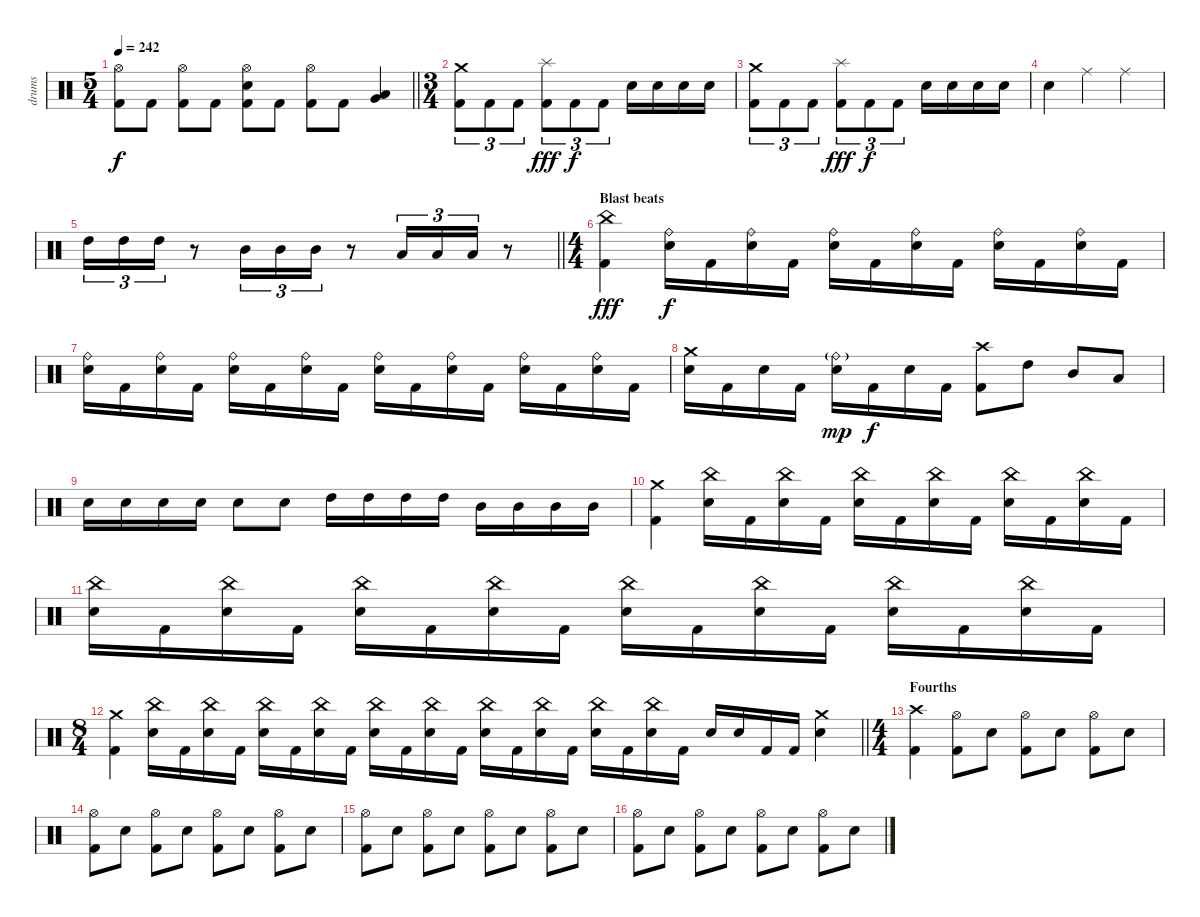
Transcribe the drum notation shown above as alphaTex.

\track ("drums" "drums") {instrument percussion}
\staff {score}
\articulation defaults
\ts (5 4)
\tempo 242
\clef neutral
\barLineRight lightlight
\ks c
("Hi-Hat (open)" "Kick (hit) 2").8{dy f} "Kick (hit) 2".8 ("Hi-Hat (open)" "Kick (hit) 2").8 "Kick (hit) 2".8 ("Hi-Hat (open)" "Electric Snare (hit)" "Kick (hit) 2").8 "Kick (hit) 2".8 ("Hi-Hat (open)" "Kick (hit) 2").8 "Kick (hit) 2".8 ("Low Tom (hit)" "Very Low Tom (hit)").4 |
\ts (3 4)
("Crash medium (hit)" "Kick (hit) 2").8{tu (3 2)} "Kick (hit) 2".8{tu (3 2)} "Kick (hit) 2".8{tu (3 2)} ("Splash (hit)" "Kick (hit) 2").8{tu (3 2) dy fff} "Kick (hit) 2".8{tu (3 2) dy f} "Kick (hit) 2".8{tu (3 2)} "Electric Snare (hit)".16 "Electric Snare (hit)".16 "Electric Snare (hit)".16 "Electric Snare (hit)".16 |
("Crash medium (hit)" "Kick (hit) 2").8{tu (3 2)} "Kick (hit) 2".8{tu (3 2)} "Kick (hit) 2".8{tu (3 2)} ("Splash (hit)" "Kick (hit) 2").8{tu (3 2) dy fff} "Kick (hit) 2".8{tu (3 2) dy f} "Kick (hit) 2".8{tu (3 2)} "Electric Snare (hit)".16 "Electric Snare (hit)".16 "Electric Snare (hit)".16 "Electric Snare (hit)".16 |
"Electric Snare (hit)".4 "Ride (middle)".4 "Ride (middle)".4 |
\barLineRight lightlight "High Tom (hit)".16{tu (3 2)} "High Tom (hit)".16{tu (3 2)} "High Tom (hit)".16{tu (3 2)}
r.8 "Mid Tom (hit)".16{tu (3 2)} "Mid Tom (hit)".16{tu (3 2)} "Mid Tom (hit)".16{tu (3 2)} r.8 "Low Tom (hit)".16{tu (3 2)} "Low Tom (hit)".16{tu (3 2)} "Low Tom (hit)".16{tu (3 2)} r.8 |
\ts (4 4)
\section ("" "Blast beats")
("China (hit)" "Kick (hit) 2").4{dy fff} ("Ride (bell)" "Electric Snare (hit)").16{dy f} "Kick (hit) 2".16 ("Ride (bell)" "Electric Snare (hit)").16 "Kick (hit) 2".16 ("Ride (bell)" "Electric Snare (hit)").16 "Kick (hit) 2".16 ("Ride (bell)" "Electric Snare (hit)").16 "Kick (hit) 2".16 ("Ride (bell)" "Electric Snare (hit)").16 "Kick (hit) 2".16 ("Ride (bell)" "Electric Snare (hit)").16 "Kick (hit) 2".16 |
("Ride (bell)" "Electric Snare (hit)").16 "Kick (hit) 2".16 ("Ride (bell)" "Electric Snare (hit)").16 "Kick (hit) 2".16 ("Ride (bell)" "Electric Snare (hit)").16 "Kick (hit) 2".16 ("Ride (bell)" "Electric Snare (hit)").16 "Kick (hit) 2".16 ("Ride (bell)" "Electric Snare (hit)").16 "Kick (hit) 2".16 ("Ride (bell)" "Electric Snare (hit)").16 "Kick (hit) 2".16 ("Ride (bell)" "Electric Snare (hit)").16 "Kick (hit) 2".16 ("Ride (bell)" "Electric Snare (hit)").16 "Kick (hit) 2".16 |
("Crash medium (hit)" "Electric Snare (hit)").16 "Kick (hit) 2".16 "Electric Snare (hit)".16 "Kick (hit) 2".16 ("Ride (bell)"{g} "Electric Snare (hit)").16{dy mp} "Kick (hit) 2".16{dy f} "Electric Snare (hit)".16 "Kick (hit) 2".16 ("Crash high (hit)" "Kick (hit) 2").8 "High Tom (hit)".8 "Mid Tom (hit)".8 "Low Tom (hit)".8 |
"Electric Snare (hit)".16 "Electric Snare (hit)".16 "Electric Snare (hit)".16 "Electric Snare (hit)".16 "Electric Snare (hit)".8 "Electric Snare (hit)".8 "High Tom (hit)".16 "High Tom (hit)".16 "High Tom (hit)".16 "High Tom (hit)".16 "Mid Tom (hit)".16 "Mid Tom (hit)".16 "Mid Tom (hit)".16 "Mid Tom (hit)".16 |
("Crash medium (hit)" "Kick (hit) 2").4 ("China (hit)" "Electric Snare (hit)").16 "Kick (hit) 2".16 ("China (hit)" "Electric Snare (hit)").16 "Kick (hit) 2".16 ("China (hit)" "Electric Snare (hit)").16 "Kick (hit) 2".16 ("China (hit)" "Electric Snare (hit)").16 "Kick (hit) 2".16 ("China (hit)" "Electric Snare (hit)").16 "Kick (hit) 2".16 ("China (hit)" "Electric Snare (hit)").16 "Kick (hit) 2".16 |
("China (hit)" "Electric Snare (hit)").16 "Kick (hit) 2".16 ("China (hit)" "Electric Snare (hit)").16 "Kick (hit) 2".16 ("China (hit)" "Electric Snare (hit)").16 "Kick (hit) 2".16 ("China (hit)" "Electric Snare (hit)").16 "Kick (hit) 2".16 ("China (hit)" "Electric Snare (hit)").16 "Kick (hit) 2".16 ("China (hit)" "Electric Snare (hit)").16 "Kick (hit) 2".16 ("China (hit)" "Electric Snare (hit)").16 "Kick (hit) 2".16 ("China (hit)" "Electric Snare (hit)").16 "Kick (hit) 2".16 |
\ts (8 4)
\barLineRight lightlight
("Crash medium (hit)" "Kick (hit) 2").4 ("China (hit)" "Electric Snare (hit)").16 "Kick (hit) 2".16 ("China (hit)" "Electric Snare (hit)").16 "Kick (hit) 2".16 ("China (hit)" "Electric Snare (hit)").16 "Kick (hit) 2".16 ("China (hit)" "Electric Snare (hit)").16 "Kick (hit) 2".16 ("China (hit)" "Electric Snare (hit)").16 "Kick (hit) 2".16 ("China (hit)" "Electric Snare (hit)").16 "Kick (hit) 2".16 ("China (hit)" "Electric Snare (hit)").16 "Kick (hit) 2".16 ("China (hit)" "Electric Snare (hit)").16 "Kick (hit) 2".16 ("China (hit)" "Electric Snare (hit)").16 "Kick (hit) 2".16 ("China (hit)" "Electric Snare (hit)").16 "Kick (hit) 2".16 "Electric Snare (hit)".16 "Electric Snare (hit)".16 "Kick (hit) 2".16 "Kick (hit) 2".16 ("Crash medium (hit)" "Electric Snare (hit)").4 |
\ts (4 4)
\section ("" "Fourths")
("Crash high (hit)" "Kick (hit) 2").4 ("Hi-Hat (open)" "Kick (hit) 2").8 "Electric Snare (hit)".8 ("Hi-Hat (open)" "Kick (hit) 2").8 "Electric Snare (hit)".8 ("Hi-Hat (open)" "Kick (hit) 2").8 "Electric Snare (hit)".8 |
("Hi-Hat (open)" "Kick (hit) 2").8 "Electric Snare (hit)".8 ("Hi-Hat (open)" "Kick (hit) 2").8 "Electric Snare (hit)".8 ("Hi-Hat (open)" "Kick (hit) 2").8 "Electric Snare (hit)".8 ("Hi-Hat (open)" "Kick (hit) 2").8 "Electric Snare (hit)".8 |
("Hi-Hat (open)" "Kick (hit) 2").8 "Electric Snare (hit)".8 ("Hi-Hat (open)" "Kick (hit) 2").8 "Electric Snare (hit)".8 ("Hi-Hat (open)" "Kick (hit) 2").8 "Electric Snare (hit)".8 ("Hi-Hat (open)" "Kick (hit) 2").8 "Electric Snare (hit)".8 |
("Hi-Hat (open)" "Kick (hit) 2").8 "Electric Snare (hit)".8 ("Hi-Hat (open)" "Kick (hit) 2").8 "Electric Snare (hit)".8 ("Hi-Hat (open)" "Kick (hit) 2").8 "Electric Snare (hit)".8 ("Hi-Hat (open)" "Kick (hit) 2").8 "Electric Snare (hit)".8
